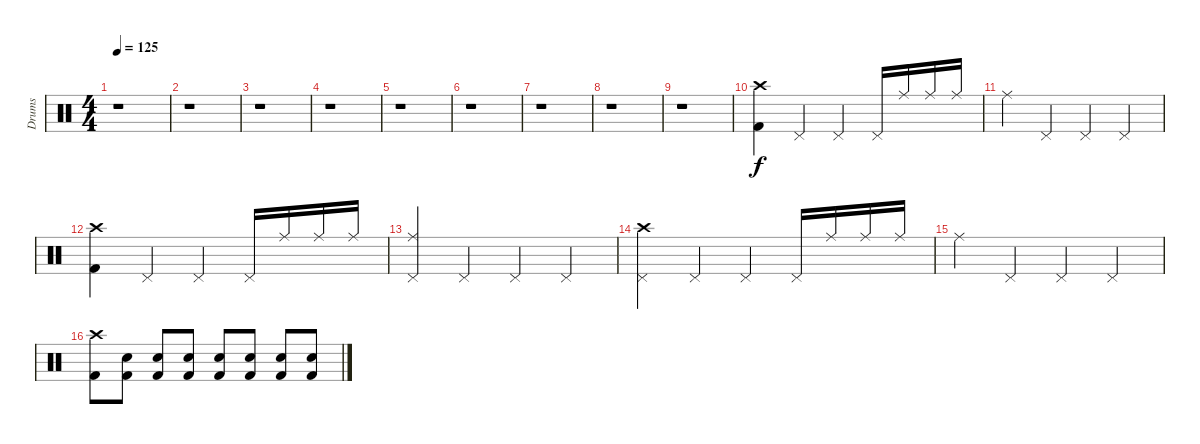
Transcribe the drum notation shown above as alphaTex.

\track ("Drums" "Drums") {instrument percussion}
\staff {score}
\articulation defaults
\ts (4 4)
\tempo 125
\clef neutral
\ks c
r.1{dy f} |
r.1 |
r.1 |
r.1 |
r.1 |
r.1 |
r.1 |
r.1 |
r.1 |
("Crash high (hit)" "Kick (hit) 2").4 "Pedal Hi-Hat (hit)".4 "Pedal Hi-Hat (hit)".4 "Pedal Hi-Hat (hit)".16 "Ride (middle)".16 "Ride (middle)".16 "Ride (middle)".16 |
"Ride (middle)".4 "Pedal Hi-Hat (hit)".4 "Pedal Hi-Hat (hit)".4 "Pedal Hi-Hat (hit)".4 |
("Crash high (hit)" "Kick (hit) 2").4 "Pedal Hi-Hat (hit)".4 "Pedal Hi-Hat (hit)".4 "Pedal Hi-Hat (hit)".16 "Ride (middle)".16 "Ride (middle)".16 "Ride (middle)".16 |
("Ride (middle)" "Pedal Hi-Hat (hit)").4 "Pedal Hi-Hat (hit)".4 "Pedal Hi-Hat (hit)".4 "Pedal Hi-Hat (hit)".4 |
("Crash high (hit)" "Pedal Hi-Hat (hit)").4 "Pedal Hi-Hat (hit)".4 "Pedal Hi-Hat (hit)".4 "Pedal Hi-Hat (hit)".16 "Ride (middle)".16 "Ride (middle)".16 "Ride (middle)".16 |
"Ride (middle)".4 "Pedal Hi-Hat (hit)".4 "Pedal Hi-Hat (hit)".4 "Pedal Hi-Hat (hit)".4 |
("Crash high (hit)" "Kick (hit) 2").8 ("Kick (hit) 2" "Snare (hit) 2").8 ("Kick (hit) 2" "Snare (hit) 2").8 ("Kick (hit) 2" "Snare (hit) 2").8 ("Kick (hit) 2" "Snare (hit) 2").8 ("Kick (hit) 2" "Snare (hit) 2").8 ("Kick (hit) 2" "Snare (hit) 2").8 ("Kick (hit) 2" "Snare (hit) 2").8
